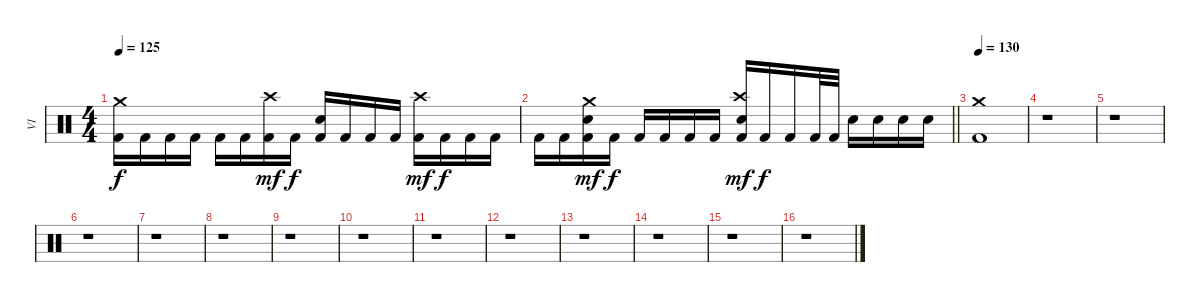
\track ("VI" "VI") {instrument percussion}
\staff {score}
\articulation defaults
\ts (4 4)
\tempo 125
\clef neutral
\ks c
("Crash medium (hit)" "Kick (hit) 2").16{dy f} "Kick (hit) 2".16 "Kick (hit) 2".16 "Kick (hit) 2".16 "Kick (hit) 2".16 "Kick (hit) 2".16 ("Crash high (hit)" "Kick (hit) 2").16{dy mf} "Kick (hit) 2".16{dy f} ("Electric Snare (hit)" "Kick (hit) 2").16 "Kick (hit) 2".16 "Kick (hit) 2".16 "Kick (hit) 2".16 ("Crash high (hit)" "Kick (hit) 2").16{dy mf} "Kick (hit) 2".16{dy f} "Kick (hit) 2".16 "Kick (hit) 2".16 |
\barLineRight lightlight "Kick (hit) 2".16 "Kick (hit) 2".16
("Crash medium (hit)" "Electric Snare (hit)" "Kick (hit) 2").16{dy mf} "Kick (hit) 2".16{dy f} "Kick (hit) 2".16 "Kick (hit) 2".16 "Kick (hit) 2".16 "Kick (hit) 2".16 ("Crash high (hit)" "Electric Snare (hit)" "Kick (hit) 2").16{dy mf} "Kick (hit) 2".16{dy f} "Kick (hit) 2".16 "Kick (hit) 2".32 "Kick (hit) 2".32 "Electric Snare (hit)".16 "Electric Snare (hit)".16 "Electric Snare (hit)".16 "Electric Snare (hit)".16 |
\section ("" "")
\tempo 130
("Crash medium (hit)" "Kick (hit) 2").1 |
r.1 |
r.1 |
r.1 |
r.1 |
r.1 |
r.1 |
r.1 |
r.1 |
r.1 |
r.1 |
r.1 |
r.1 |
r.1
